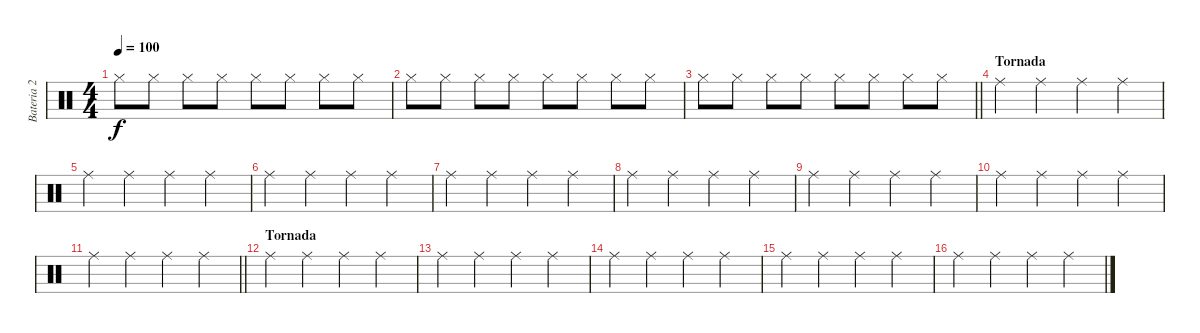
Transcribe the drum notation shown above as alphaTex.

\track ("Bateria 2" "Bateria 2") {instrument percussion}
\staff {score}
\articulation defaults
\ts (4 4)
\tempo 100
\clef neutral
\ks c "Hi-Hat (closed)".8{dy f} "Hi-Hat (closed)".8 "Hi-Hat (closed)".8 "Hi-Hat (closed)".8 "Hi-Hat (closed)".8 "Hi-Hat (closed)".8 "Hi-Hat (closed)".8 "Hi-Hat (closed)".8
|
"Hi-Hat (closed)".8 "Hi-Hat (closed)".8 "Hi-Hat (closed)".8 "Hi-Hat (closed)".8 "Hi-Hat (closed)".8 "Hi-Hat (closed)".8 "Hi-Hat (closed)".8 "Hi-Hat (closed)".8 |
\barLineRight lightlight "Hi-Hat (closed)".8 "Hi-Hat (closed)".8 "Hi-Hat (closed)".8 "Hi-Hat (closed)".8 "Hi-Hat (closed)".8 "Hi-Hat (closed)".8 "Hi-Hat (closed)".8 "Hi-Hat (closed)".8
|
\section ("" "Tornada")
"Ride (middle)".4 "Ride (middle)".4 "Ride (middle)".4 "Ride (middle)".4 |
"Ride (middle)".4 "Ride (middle)".4 "Ride (middle)".4 "Ride (middle)".4 |
"Ride (middle)".4 "Ride (middle)".4 "Ride (middle)".4 "Ride (middle)".4 |
"Ride (middle)".4 "Ride (middle)".4 "Ride (middle)".4 "Ride (middle)".4 |
"Ride (middle)".4 "Ride (middle)".4 "Ride (middle)".4 "Ride (middle)".4 |
"Ride (middle)".4 "Ride (middle)".4 "Ride (middle)".4 "Ride (middle)".4 |
"Ride (middle)".4 "Ride (middle)".4 "Ride (middle)".4 "Ride (middle)".4 |
\barLineRight lightlight "Ride (middle)".4 "Ride (middle)".4 "Ride (middle)".4 "Ride (middle)".4
|
\section ("" "Tornada")
"Ride (middle)".4 "Ride (middle)".4 "Ride (middle)".4 "Ride (middle)".4 |
"Ride (middle)".4 "Ride (middle)".4 "Ride (middle)".4 "Ride (middle)".4 |
"Ride (middle)".4 "Ride (middle)".4 "Ride (middle)".4 "Ride (middle)".4 |
"Ride (middle)".4 "Ride (middle)".4 "Ride (middle)".4 "Ride (middle)".4 |
"Ride (middle)".4 "Ride (middle)".4 "Ride (middle)".4 "Ride (middle)".4
